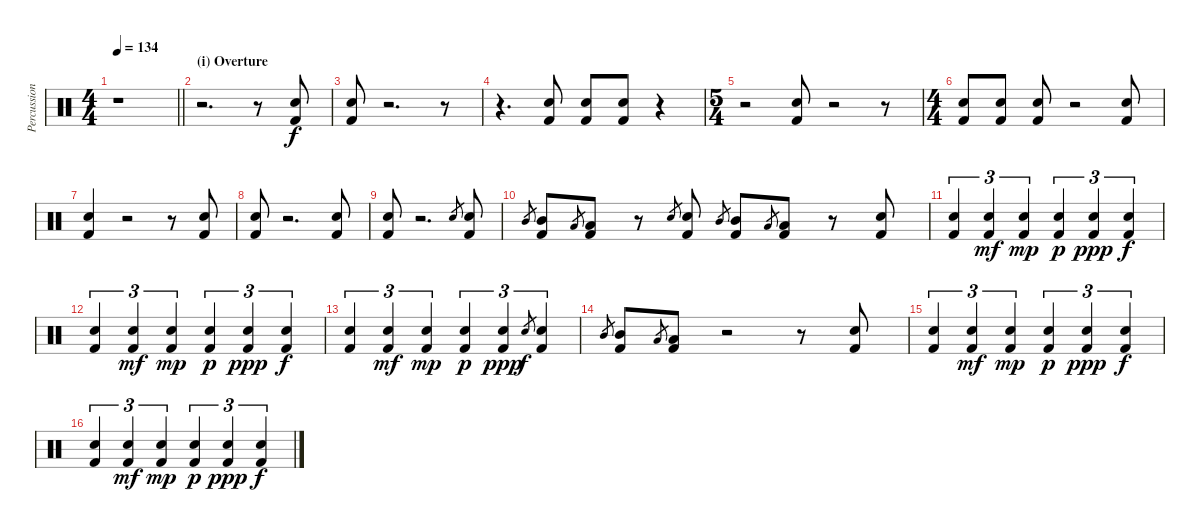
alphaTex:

\track ("Percussion" "Percussion") {instrument percussion}
\staff {score}
\articulation defaults
\ts (4 4)
\tempo 134
\clef neutral
\barLineRight lightlight
\ks c
r.1{dy f} |
\section ("" "(i) Overture")
r.2{d} r.8 ("Kick (hit) 2" "Electric Snare (hit)").8 |
("Kick (hit) 2" "Electric Snare (hit)").8 r.2{d} r.8 |
r.4{d} ("Kick (hit) 2" "Electric Snare (hit)").8 ("Kick (hit) 2" "Electric Snare (hit)").8 ("Kick (hit) 2" "Electric Snare (hit)").8 r.4 |
\ts (5 4)
r.2 ("Kick (hit) 2" "Electric Snare (hit)").8 r.2 r.8 |
\ts (4 4)
("Kick (hit) 2" "Electric Snare (hit)").8 ("Kick (hit) 2" "Electric Snare (hit)").8 ("Kick (hit) 2" "Electric Snare (hit)").8 r.2 ("Kick (hit) 2" "Electric Snare (hit)").8 |
("Kick (hit) 2" "Electric Snare (hit)").4 r.2 r.8 ("Kick (hit) 2" "Electric Snare (hit)").8 |
("Kick (hit) 2" "Electric Snare (hit)").8 r.2{d} ("Kick (hit) 2" "Electric Snare (hit)").8 |
("Kick (hit) 2" "Electric Snare (hit)").8 r.2{d} "Electric Snare (hit)".8{gr} ("Kick (hit) 2" "Electric Snare (hit)").8 |
"Mid Tom (hit)".8{gr} ("Kick (hit) 2" "Mid Tom (hit)").8 "Low Tom (hit)".8{gr} ("Kick (hit) 2" "Low Tom (hit)").8 r.8 "Electric Snare (hit)".8{gr} ("Kick (hit) 2" "Electric Snare (hit)").8 "Mid Tom (hit)".8{gr} ("Kick (hit) 2" "Mid Tom (hit)").8 "Low Tom (hit)".8{gr} ("Kick (hit) 2" "Low Tom (hit)").8 r.8 ("Kick (hit) 2" "Electric Snare (hit)").8 |
("Kick (hit) 2" "Electric Snare (hit)").4{tu (3 2)} ("Kick (hit) 2" "Electric Snare (hit)").4{tu (3 2) dy mf} ("Kick (hit) 2" "Electric Snare (hit)").4{tu (3 2) dy mp} ("Kick (hit) 2" "Electric Snare (hit)").4{tu (3 2) dy p} ("Kick (hit) 2" "Electric Snare (hit)").4{tu (3 2) dy ppp} ("Kick (hit) 2" "Electric Snare (hit)").4{tu (3 2) dy f} |
("Kick (hit) 2" "Electric Snare (hit)").4{tu (3 2)} ("Kick (hit) 2" "Electric Snare (hit)").4{tu (3 2) dy mf} ("Kick (hit) 2" "Electric Snare (hit)").4{tu (3 2) dy mp} ("Kick (hit) 2" "Electric Snare (hit)").4{tu (3 2) dy p} ("Kick (hit) 2" "Electric Snare (hit)").4{tu (3 2) dy ppp} ("Kick (hit) 2" "Electric Snare (hit)").4{tu (3 2) dy f} |
("Kick (hit) 2" "Electric Snare (hit)").4{tu (3 2)} ("Kick (hit) 2" "Electric Snare (hit)").4{tu (3 2) dy mf} ("Kick (hit) 2" "Electric Snare (hit)").4{tu (3 2) dy mp} ("Kick (hit) 2" "Electric Snare (hit)").4{tu (3 2) dy p} ("Kick (hit) 2" "Electric Snare (hit)").4{tu (3 2) dy ppp} "Electric Snare (hit)".8{gr dy f} ("Kick (hit) 2" "Electric Snare (hit)").4{tu (3 2)} |
"Mid Tom (hit)".8{gr} ("Kick (hit) 2" "Mid Tom (hit)").8 "Low Tom (hit)".8{gr} ("Kick (hit) 2" "Low Tom (hit)").8 r.2 r.8 ("Kick (hit) 2" "Electric Snare (hit)").8 |
("Kick (hit) 2" "Electric Snare (hit)").4{tu (3 2)} ("Kick (hit) 2" "Electric Snare (hit)").4{tu (3 2) dy mf} ("Kick (hit) 2" "Electric Snare (hit)").4{tu (3 2) dy mp} ("Kick (hit) 2" "Electric Snare (hit)").4{tu (3 2) dy p} ("Kick (hit) 2" "Electric Snare (hit)").4{tu (3 2) dy ppp} ("Kick (hit) 2" "Electric Snare (hit)").4{tu (3 2) dy f} |
("Kick (hit) 2" "Electric Snare (hit)").4{tu (3 2)} ("Kick (hit) 2" "Electric Snare (hit)").4{tu (3 2) dy mf} ("Kick (hit) 2" "Electric Snare (hit)").4{tu (3 2) dy mp} ("Kick (hit) 2" "Electric Snare (hit)").4{tu (3 2) dy p} ("Kick (hit) 2" "Electric Snare (hit)").4{tu (3 2) dy ppp} ("Kick (hit) 2" "Electric Snare (hit)").4{tu (3 2) dy f}
